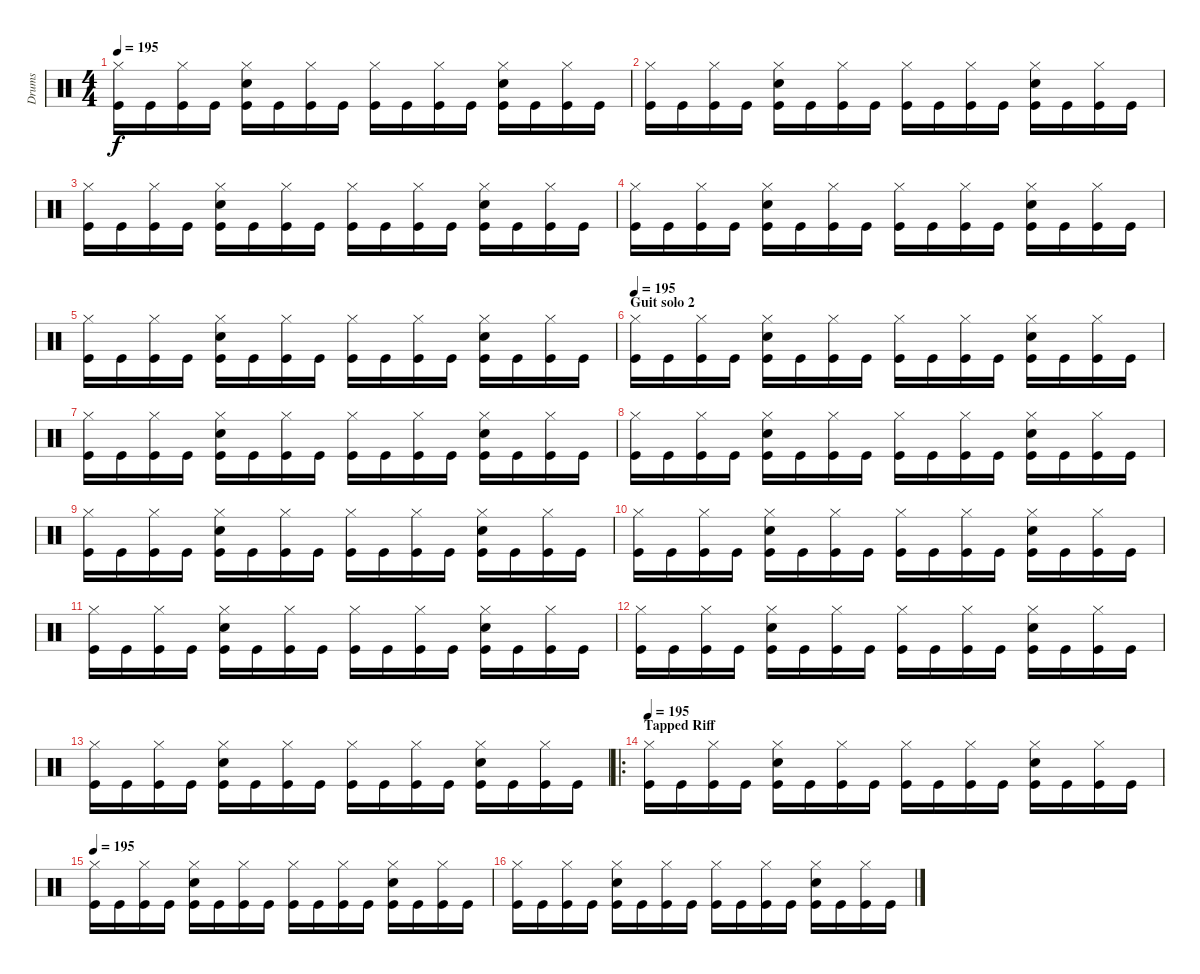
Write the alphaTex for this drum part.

\track ("Drums" "Drums") {instrument percussion}
\staff {score}
\articulation defaults
\ts (4 4)
\tempo 195
\clef neutral
\ks c
("Hi-Hat (closed)" "Kick (hit)").16{dy f} "Kick (hit)".16 ("Hi-Hat (closed)" "Kick (hit)").16 "Kick (hit)".16 ("Hi-Hat (closed)" "Snare (hit) 2" "Kick (hit)").16 "Kick (hit)".16 ("Hi-Hat (closed)" "Kick (hit)").16 "Kick (hit)".16 ("Hi-Hat (closed)" "Kick (hit)").16 "Kick (hit)".16 ("Hi-Hat (closed)" "Kick (hit)").16 "Kick (hit)".16 ("Hi-Hat (closed)" "Snare (hit) 2" "Kick (hit)").16 "Kick (hit)".16 ("Hi-Hat (closed)" "Kick (hit)").16 "Kick (hit)".16 |
("Hi-Hat (closed)" "Kick (hit)").16 "Kick (hit)".16 ("Hi-Hat (closed)" "Kick (hit)").16 "Kick (hit)".16 ("Hi-Hat (closed)" "Snare (hit) 2" "Kick (hit)").16 "Kick (hit)".16 ("Hi-Hat (closed)" "Kick (hit)").16 "Kick (hit)".16 ("Hi-Hat (closed)" "Kick (hit)").16 "Kick (hit)".16 ("Hi-Hat (closed)" "Kick (hit)").16 "Kick (hit)".16 ("Hi-Hat (closed)" "Snare (hit) 2" "Kick (hit)").16 "Kick (hit)".16 ("Hi-Hat (closed)" "Kick (hit)").16 "Kick (hit)".16 |
("Hi-Hat (closed)" "Kick (hit)").16 "Kick (hit)".16 ("Hi-Hat (closed)" "Kick (hit)").16 "Kick (hit)".16 ("Hi-Hat (closed)" "Snare (hit) 2" "Kick (hit)").16 "Kick (hit)".16 ("Hi-Hat (closed)" "Kick (hit)").16 "Kick (hit)".16 ("Hi-Hat (closed)" "Kick (hit)").16 "Kick (hit)".16 ("Hi-Hat (closed)" "Kick (hit)").16 "Kick (hit)".16 ("Hi-Hat (closed)" "Snare (hit) 2" "Kick (hit)").16 "Kick (hit)".16 ("Hi-Hat (closed)" "Kick (hit)").16 "Kick (hit)".16 |
("Hi-Hat (closed)" "Kick (hit)").16 "Kick (hit)".16 ("Hi-Hat (closed)" "Kick (hit)").16 "Kick (hit)".16 ("Hi-Hat (closed)" "Snare (hit) 2" "Kick (hit)").16 "Kick (hit)".16 ("Hi-Hat (closed)" "Kick (hit)").16 "Kick (hit)".16 ("Hi-Hat (closed)" "Kick (hit)").16 "Kick (hit)".16 ("Hi-Hat (closed)" "Kick (hit)").16 "Kick (hit)".16 ("Hi-Hat (closed)" "Snare (hit) 2" "Kick (hit)").16 "Kick (hit)".16 ("Hi-Hat (closed)" "Kick (hit)").16 "Kick (hit)".16 |
("Hi-Hat (closed)" "Kick (hit)").16 "Kick (hit)".16 ("Hi-Hat (closed)" "Kick (hit)").16 "Kick (hit)".16 ("Hi-Hat (closed)" "Snare (hit) 2" "Kick (hit)").16 "Kick (hit)".16 ("Hi-Hat (closed)" "Kick (hit)").16 "Kick (hit)".16 ("Hi-Hat (closed)" "Kick (hit)").16 "Kick (hit)".16 ("Hi-Hat (closed)" "Kick (hit)").16 "Kick (hit)".16 ("Hi-Hat (closed)" "Snare (hit) 2" "Kick (hit)").16 "Kick (hit)".16 ("Hi-Hat (closed)" "Kick (hit)").16 "Kick (hit)".16 |
\section ("" "Guit solo 2")
\tempo 195
("Hi-Hat (closed)" "Kick (hit)").16 "Kick (hit)".16 ("Hi-Hat (closed)" "Kick (hit)").16 "Kick (hit)".16 ("Hi-Hat (closed)" "Snare (hit) 2" "Kick (hit)").16 "Kick (hit)".16 ("Hi-Hat (closed)" "Kick (hit)").16 "Kick (hit)".16 ("Hi-Hat (closed)" "Kick (hit)").16 "Kick (hit)".16 ("Hi-Hat (closed)" "Kick (hit)").16 "Kick (hit)".16 ("Hi-Hat (closed)" "Snare (hit) 2" "Kick (hit)").16 "Kick (hit)".16 ("Hi-Hat (closed)" "Kick (hit)").16 "Kick (hit)".16 |
("Hi-Hat (closed)" "Kick (hit)").16 "Kick (hit)".16 ("Hi-Hat (closed)" "Kick (hit)").16 "Kick (hit)".16 ("Hi-Hat (closed)" "Snare (hit) 2" "Kick (hit)").16 "Kick (hit)".16 ("Hi-Hat (closed)" "Kick (hit)").16 "Kick (hit)".16 ("Hi-Hat (closed)" "Kick (hit)").16 "Kick (hit)".16 ("Hi-Hat (closed)" "Kick (hit)").16 "Kick (hit)".16 ("Hi-Hat (closed)" "Snare (hit) 2" "Kick (hit)").16 "Kick (hit)".16 ("Hi-Hat (closed)" "Kick (hit)").16 "Kick (hit)".16 |
("Hi-Hat (closed)" "Kick (hit)").16 "Kick (hit)".16 ("Hi-Hat (closed)" "Kick (hit)").16 "Kick (hit)".16 ("Hi-Hat (closed)" "Snare (hit) 2" "Kick (hit)").16 "Kick (hit)".16 ("Hi-Hat (closed)" "Kick (hit)").16 "Kick (hit)".16 ("Hi-Hat (closed)" "Kick (hit)").16 "Kick (hit)".16 ("Hi-Hat (closed)" "Kick (hit)").16 "Kick (hit)".16 ("Hi-Hat (closed)" "Snare (hit) 2" "Kick (hit)").16 "Kick (hit)".16 ("Hi-Hat (closed)" "Kick (hit)").16 "Kick (hit)".16 |
("Hi-Hat (closed)" "Kick (hit)").16 "Kick (hit)".16 ("Hi-Hat (closed)" "Kick (hit)").16 "Kick (hit)".16 ("Hi-Hat (closed)" "Snare (hit) 2" "Kick (hit)").16 "Kick (hit)".16 ("Hi-Hat (closed)" "Kick (hit)").16 "Kick (hit)".16 ("Hi-Hat (closed)" "Kick (hit)").16 "Kick (hit)".16 ("Hi-Hat (closed)" "Kick (hit)").16 "Kick (hit)".16 ("Hi-Hat (closed)" "Snare (hit) 2" "Kick (hit)").16 "Kick (hit)".16 ("Hi-Hat (closed)" "Kick (hit)").16 "Kick (hit)".16 |
("Hi-Hat (closed)" "Kick (hit)").16 "Kick (hit)".16 ("Hi-Hat (closed)" "Kick (hit)").16 "Kick (hit)".16 ("Hi-Hat (closed)" "Snare (hit) 2" "Kick (hit)").16 "Kick (hit)".16 ("Hi-Hat (closed)" "Kick (hit)").16 "Kick (hit)".16 ("Hi-Hat (closed)" "Kick (hit)").16 "Kick (hit)".16 ("Hi-Hat (closed)" "Kick (hit)").16 "Kick (hit)".16 ("Hi-Hat (closed)" "Snare (hit) 2" "Kick (hit)").16 "Kick (hit)".16 ("Hi-Hat (closed)" "Kick (hit)").16 "Kick (hit)".16 |
("Hi-Hat (closed)" "Kick (hit)").16 "Kick (hit)".16 ("Hi-Hat (closed)" "Kick (hit)").16 "Kick (hit)".16 ("Hi-Hat (closed)" "Snare (hit) 2" "Kick (hit)").16 "Kick (hit)".16 ("Hi-Hat (closed)" "Kick (hit)").16 "Kick (hit)".16 ("Hi-Hat (closed)" "Kick (hit)").16 "Kick (hit)".16 ("Hi-Hat (closed)" "Kick (hit)").16 "Kick (hit)".16 ("Hi-Hat (closed)" "Snare (hit) 2" "Kick (hit)").16 "Kick (hit)".16 ("Hi-Hat (closed)" "Kick (hit)").16 "Kick (hit)".16 |
("Hi-Hat (closed)" "Kick (hit)").16 "Kick (hit)".16 ("Hi-Hat (closed)" "Kick (hit)").16 "Kick (hit)".16 ("Hi-Hat (closed)" "Snare (hit) 2" "Kick (hit)").16 "Kick (hit)".16 ("Hi-Hat (closed)" "Kick (hit)").16 "Kick (hit)".16 ("Hi-Hat (closed)" "Kick (hit)").16 "Kick (hit)".16 ("Hi-Hat (closed)" "Kick (hit)").16 "Kick (hit)".16 ("Hi-Hat (closed)" "Snare (hit) 2" "Kick (hit)").16 "Kick (hit)".16 ("Hi-Hat (closed)" "Kick (hit)").16 "Kick (hit)".16 |
("Hi-Hat (closed)" "Kick (hit)").16 "Kick (hit)".16 ("Hi-Hat (closed)" "Kick (hit)").16 "Kick (hit)".16 ("Hi-Hat (closed)" "Snare (hit) 2" "Kick (hit)").16 "Kick (hit)".16 ("Hi-Hat (closed)" "Kick (hit)").16 "Kick (hit)".16 ("Hi-Hat (closed)" "Kick (hit)").16 "Kick (hit)".16 ("Hi-Hat (closed)" "Kick (hit)").16 "Kick (hit)".16 ("Hi-Hat (closed)" "Snare (hit) 2" "Kick (hit)").16 "Kick (hit)".16 ("Hi-Hat (closed)" "Kick (hit)").16 "Kick (hit)".16 |
\ro
\section ("" "Tapped Riff")
\tempo 195
("Hi-Hat (closed)" "Kick (hit)").16 "Kick (hit)".16 ("Hi-Hat (closed)" "Kick (hit)").16 "Kick (hit)".16 ("Hi-Hat (closed)" "Snare (hit) 2" "Kick (hit)").16 "Kick (hit)".16 ("Hi-Hat (closed)" "Kick (hit)").16 "Kick (hit)".16 ("Hi-Hat (closed)" "Kick (hit)").16 "Kick (hit)".16 ("Hi-Hat (closed)" "Kick (hit)").16 "Kick (hit)".16 ("Hi-Hat (closed)" "Snare (hit) 2" "Kick (hit)").16 "Kick (hit)".16 ("Hi-Hat (closed)" "Kick (hit)").16 "Kick (hit)".16 |
\tempo 195
("Hi-Hat (closed)" "Kick (hit)").16 "Kick (hit)".16 ("Hi-Hat (closed)" "Kick (hit)").16 "Kick (hit)".16 ("Hi-Hat (closed)" "Snare (hit) 2" "Kick (hit)").16 "Kick (hit)".16 ("Hi-Hat (closed)" "Kick (hit)").16 "Kick (hit)".16 ("Hi-Hat (closed)" "Kick (hit)").16 "Kick (hit)".16 ("Hi-Hat (closed)" "Kick (hit)").16 "Kick (hit)".16 ("Hi-Hat (closed)" "Snare (hit) 2" "Kick (hit)").16 "Kick (hit)".16 ("Hi-Hat (closed)" "Kick (hit)").16 "Kick (hit)".16 |
("Hi-Hat (closed)" "Kick (hit)").16 "Kick (hit)".16 ("Hi-Hat (closed)" "Kick (hit)").16 "Kick (hit)".16 ("Hi-Hat (closed)" "Snare (hit) 2" "Kick (hit)").16 "Kick (hit)".16 ("Hi-Hat (closed)" "Kick (hit)").16 "Kick (hit)".16 ("Hi-Hat (closed)" "Kick (hit)").16 "Kick (hit)".16 ("Hi-Hat (closed)" "Kick (hit)").16 "Kick (hit)".16 ("Hi-Hat (closed)" "Snare (hit) 2" "Kick (hit)").16 "Kick (hit)".16 ("Hi-Hat (closed)" "Kick (hit)").16 "Kick (hit)".16
